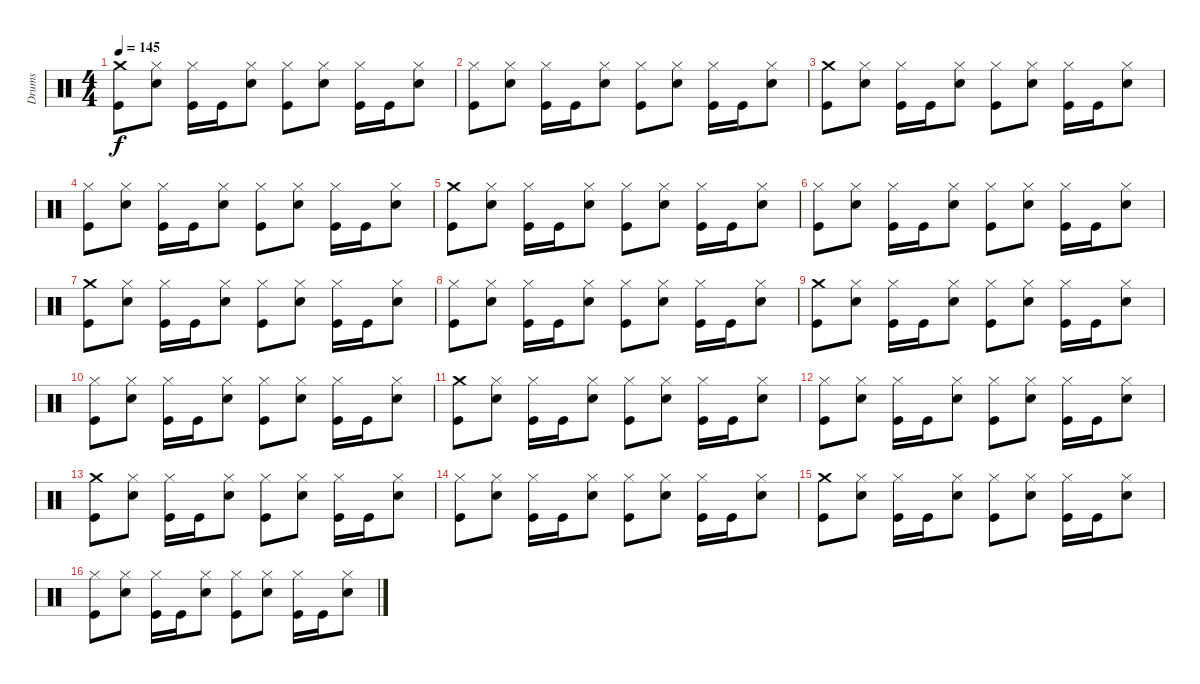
\track ("Drums" "Drums") {instrument percussion}
\staff {score}
\articulation defaults
\ts (4 4)
\tempo 145
\clef neutral
\ks c
("Crash medium (hit)" "Kick (hit)").8{dy f} ("Hi-Hat (closed)" "Snare (hit) 2").8 ("Hi-Hat (closed)" "Kick (hit)").16 "Kick (hit)".16 ("Hi-Hat (closed)" "Snare (hit) 2").8 ("Hi-Hat (closed)" "Kick (hit)").8 ("Hi-Hat (closed)" "Snare (hit) 2").8 ("Hi-Hat (closed)" "Kick (hit)").16 "Kick (hit)".16 ("Hi-Hat (closed)" "Snare (hit) 2").8 |
("Hi-Hat (closed)" "Kick (hit)").8 ("Hi-Hat (closed)" "Snare (hit) 2").8 ("Hi-Hat (closed)" "Kick (hit)").16 "Kick (hit)".16 ("Hi-Hat (closed)" "Snare (hit) 2").8 ("Hi-Hat (closed)" "Kick (hit)").8 ("Hi-Hat (closed)" "Snare (hit) 2").8 ("Hi-Hat (closed)" "Kick (hit)").16 "Kick (hit)".16 ("Hi-Hat (closed)" "Snare (hit) 2").8 |
("Crash medium (hit)" "Kick (hit)").8 ("Hi-Hat (closed)" "Snare (hit) 2").8 ("Hi-Hat (closed)" "Kick (hit)").16 "Kick (hit)".16 ("Hi-Hat (closed)" "Snare (hit) 2").8 ("Hi-Hat (closed)" "Kick (hit)").8 ("Hi-Hat (closed)" "Snare (hit) 2").8 ("Hi-Hat (closed)" "Kick (hit)").16 "Kick (hit)".16 ("Hi-Hat (closed)" "Snare (hit) 2").8 |
("Hi-Hat (closed)" "Kick (hit)").8 ("Hi-Hat (closed)" "Snare (hit) 2").8 ("Hi-Hat (closed)" "Kick (hit)").16 "Kick (hit)".16 ("Hi-Hat (closed)" "Snare (hit) 2").8 ("Hi-Hat (closed)" "Kick (hit)").8 ("Hi-Hat (closed)" "Snare (hit) 2").8 ("Hi-Hat (closed)" "Kick (hit)").16 "Kick (hit)".16 ("Hi-Hat (closed)" "Snare (hit) 2").8 |
("Crash medium (hit)" "Kick (hit)").8 ("Hi-Hat (closed)" "Snare (hit) 2").8 ("Hi-Hat (closed)" "Kick (hit)").16 "Kick (hit)".16 ("Hi-Hat (closed)" "Snare (hit) 2").8 ("Hi-Hat (closed)" "Kick (hit)").8 ("Hi-Hat (closed)" "Snare (hit) 2").8 ("Hi-Hat (closed)" "Kick (hit)").16 "Kick (hit)".16 ("Hi-Hat (closed)" "Snare (hit) 2").8 |
("Hi-Hat (closed)" "Kick (hit)").8 ("Hi-Hat (closed)" "Snare (hit) 2").8 ("Hi-Hat (closed)" "Kick (hit)").16 "Kick (hit)".16 ("Hi-Hat (closed)" "Snare (hit) 2").8 ("Hi-Hat (closed)" "Kick (hit)").8 ("Hi-Hat (closed)" "Snare (hit) 2").8 ("Hi-Hat (closed)" "Kick (hit)").16 "Kick (hit)".16 ("Hi-Hat (closed)" "Snare (hit) 2").8 |
("Crash medium (hit)" "Kick (hit)").8 ("Hi-Hat (closed)" "Snare (hit) 2").8 ("Hi-Hat (closed)" "Kick (hit)").16 "Kick (hit)".16 ("Hi-Hat (closed)" "Snare (hit) 2").8 ("Hi-Hat (closed)" "Kick (hit)").8 ("Hi-Hat (closed)" "Snare (hit) 2").8 ("Hi-Hat (closed)" "Kick (hit)").16 "Kick (hit)".16 ("Hi-Hat (closed)" "Snare (hit) 2").8 |
("Hi-Hat (closed)" "Kick (hit)").8 ("Hi-Hat (closed)" "Snare (hit) 2").8 ("Hi-Hat (closed)" "Kick (hit)").16 "Kick (hit)".16 ("Hi-Hat (closed)" "Snare (hit) 2").8 ("Hi-Hat (closed)" "Kick (hit)").8 ("Hi-Hat (closed)" "Snare (hit) 2").8 ("Hi-Hat (closed)" "Kick (hit)").16 "Kick (hit)".16 ("Hi-Hat (closed)" "Snare (hit) 2").8 |
("Crash medium (hit)" "Kick (hit)").8 ("Hi-Hat (closed)" "Snare (hit) 2").8 ("Hi-Hat (closed)" "Kick (hit)").16 "Kick (hit)".16 ("Hi-Hat (closed)" "Snare (hit) 2").8 ("Hi-Hat (closed)" "Kick (hit)").8 ("Hi-Hat (closed)" "Snare (hit) 2").8 ("Hi-Hat (closed)" "Kick (hit)").16 "Kick (hit)".16 ("Hi-Hat (closed)" "Snare (hit) 2").8 |
("Hi-Hat (closed)" "Kick (hit)").8 ("Hi-Hat (closed)" "Snare (hit) 2").8 ("Hi-Hat (closed)" "Kick (hit)").16 "Kick (hit)".16 ("Hi-Hat (closed)" "Snare (hit) 2").8 ("Hi-Hat (closed)" "Kick (hit)").8 ("Hi-Hat (closed)" "Snare (hit) 2").8 ("Hi-Hat (closed)" "Kick (hit)").16 "Kick (hit)".16 ("Hi-Hat (closed)" "Snare (hit) 2").8 |
("Crash medium (hit)" "Kick (hit)").8 ("Hi-Hat (closed)" "Snare (hit) 2").8 ("Hi-Hat (closed)" "Kick (hit)").16 "Kick (hit)".16 ("Hi-Hat (closed)" "Snare (hit) 2").8 ("Hi-Hat (closed)" "Kick (hit)").8 ("Hi-Hat (closed)" "Snare (hit) 2").8 ("Hi-Hat (closed)" "Kick (hit)").16 "Kick (hit)".16 ("Hi-Hat (closed)" "Snare (hit) 2").8 |
("Hi-Hat (closed)" "Kick (hit)").8 ("Hi-Hat (closed)" "Snare (hit) 2").8 ("Hi-Hat (closed)" "Kick (hit)").16 "Kick (hit)".16 ("Hi-Hat (closed)" "Snare (hit) 2").8 ("Hi-Hat (closed)" "Kick (hit)").8 ("Hi-Hat (closed)" "Snare (hit) 2").8 ("Hi-Hat (closed)" "Kick (hit)").16 "Kick (hit)".16 ("Hi-Hat (closed)" "Snare (hit) 2").8 |
("Crash medium (hit)" "Kick (hit)").8 ("Hi-Hat (closed)" "Snare (hit) 2").8 ("Hi-Hat (closed)" "Kick (hit)").16 "Kick (hit)".16 ("Hi-Hat (closed)" "Snare (hit) 2").8 ("Hi-Hat (closed)" "Kick (hit)").8 ("Hi-Hat (closed)" "Snare (hit) 2").8 ("Hi-Hat (closed)" "Kick (hit)").16 "Kick (hit)".16 ("Hi-Hat (closed)" "Snare (hit) 2").8 |
("Hi-Hat (closed)" "Kick (hit)").8 ("Hi-Hat (closed)" "Snare (hit) 2").8 ("Hi-Hat (closed)" "Kick (hit)").16 "Kick (hit)".16 ("Hi-Hat (closed)" "Snare (hit) 2").8 ("Hi-Hat (closed)" "Kick (hit)").8 ("Hi-Hat (closed)" "Snare (hit) 2").8 ("Hi-Hat (closed)" "Kick (hit)").16 "Kick (hit)".16 ("Hi-Hat (closed)" "Snare (hit) 2").8 |
("Crash medium (hit)" "Kick (hit)").8 ("Hi-Hat (closed)" "Snare (hit) 2").8 ("Hi-Hat (closed)" "Kick (hit)").16 "Kick (hit)".16 ("Hi-Hat (closed)" "Snare (hit) 2").8 ("Hi-Hat (closed)" "Kick (hit)").8 ("Hi-Hat (closed)" "Snare (hit) 2").8 ("Hi-Hat (closed)" "Kick (hit)").16 "Kick (hit)".16 ("Hi-Hat (closed)" "Snare (hit) 2").8 |
("Hi-Hat (closed)" "Kick (hit)").8 ("Hi-Hat (closed)" "Snare (hit) 2").8 ("Hi-Hat (closed)" "Kick (hit)").16 "Kick (hit)".16 ("Hi-Hat (closed)" "Snare (hit) 2").8 ("Hi-Hat (closed)" "Kick (hit)").8 ("Hi-Hat (closed)" "Snare (hit) 2").8 ("Hi-Hat (closed)" "Kick (hit)").16 "Kick (hit)".16 ("Hi-Hat (closed)" "Snare (hit) 2").8
